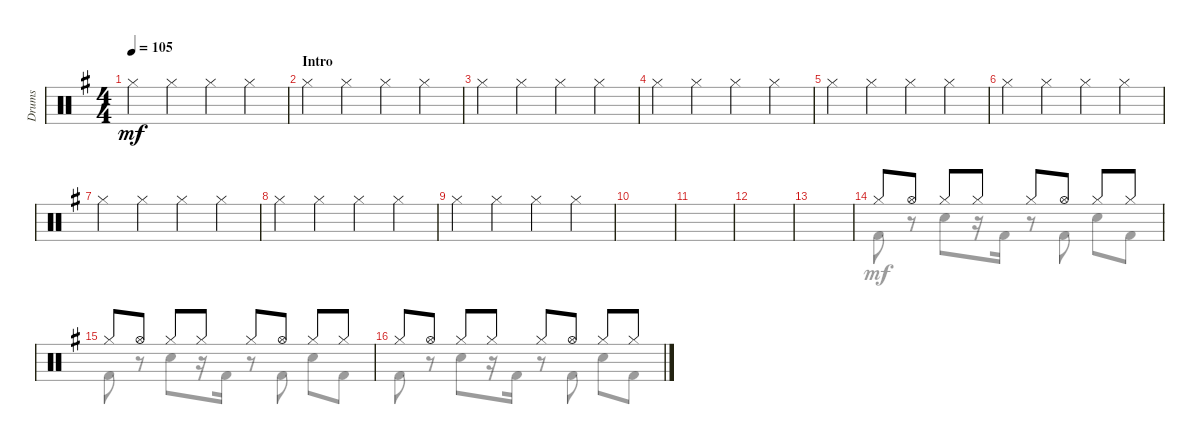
\track ("Drums" "Drums") {instrument percussion}
\staff {score}
\articulation defaults
\voice
\ts (4 4)
\tempo 105
\clef neutral
\ks eminor "Hi-Hat (closed)".4{dy mf} "Hi-Hat (closed)".4 "Hi-Hat (closed)".4 "Hi-Hat (closed)".4
|
\section ("" "Intro")
"Hi-Hat (closed)".4 "Hi-Hat (closed)".4 "Hi-Hat (closed)".4 "Hi-Hat (closed)".4 |
"Hi-Hat (closed)".4 "Hi-Hat (closed)".4 "Hi-Hat (closed)".4 "Hi-Hat (closed)".4 |
"Hi-Hat (closed)".4 "Hi-Hat (closed)".4 "Hi-Hat (closed)".4 "Hi-Hat (closed)".4 |
"Hi-Hat (closed)".4 "Hi-Hat (closed)".4 "Hi-Hat (closed)".4 "Hi-Hat (closed)".4 |
"Hi-Hat (closed)".4 "Hi-Hat (closed)".4 "Hi-Hat (closed)".4 "Hi-Hat (closed)".4 |
"Hi-Hat (closed)".4 "Hi-Hat (closed)".4 "Hi-Hat (closed)".4 "Hi-Hat (closed)".4 |
"Hi-Hat (closed)".4 "Hi-Hat (closed)".4 "Hi-Hat (closed)".4 "Hi-Hat (closed)".4 |
"Hi-Hat (closed)".4 "Hi-Hat (closed)".4 "Hi-Hat (closed)".4 "Hi-Hat (closed)".4 |
|
|
|
|
"Hi-Hat (closed)".8 "Hi-Hat (open)".8 "Hi-Hat (closed)".8 "Hi-Hat (closed)".8 "Hi-Hat (closed)".8 "Hi-Hat (open)".8 "Hi-Hat (closed)".8 "Hi-Hat (closed)".8 |
"Hi-Hat (closed)".8 "Hi-Hat (open)".8 "Hi-Hat (closed)".8 "Hi-Hat (closed)".8 "Hi-Hat (closed)".8 "Hi-Hat (open)".8 "Hi-Hat (closed)".8 "Hi-Hat (closed)".8 |
"Hi-Hat (closed)".8 "Hi-Hat (open)".8 "Hi-Hat (closed)".8 "Hi-Hat (closed)".8 "Hi-Hat (closed)".8 "Hi-Hat (open)".8 "Hi-Hat (closed)".8 "Hi-Hat (closed)".8
\voice
\clef neutral
\ottava regular
\simile none
\ks eminor
|
|
|
|
|
|
|
|
|
|
|
|
|
"Kick (hit) 2".8 r.8 "Snare (hit) 2".8 r.16 "Kick (hit) 2".16 r.8 "Kick (hit) 2".8 "Snare (hit) 2".8 "Kick (hit) 2".8 |
"Kick (hit) 2".8 r.8 "Snare (hit) 2".8 r.16 "Kick (hit) 2".16 r.8 "Kick (hit) 2".8 "Snare (hit) 2".8 "Kick (hit) 2".8 |
"Kick (hit) 2".8 r.8 "Snare (hit) 2".8 r.16 "Kick (hit) 2".16 r.8 "Kick (hit) 2".8 "Snare (hit) 2".8 "Kick (hit) 2".8
